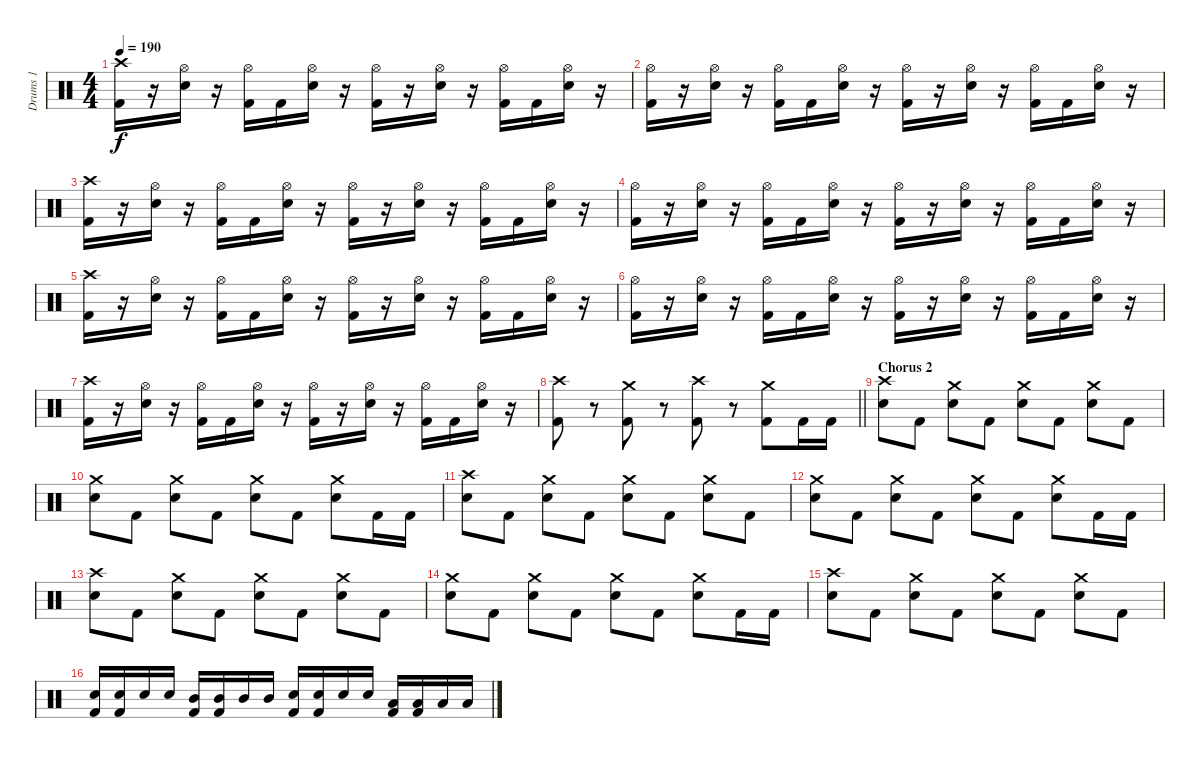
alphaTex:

\track ("Drums 1" "Drums 1") {instrument percussion}
\staff {score}
\articulation defaults
\ts (4 4)
\tempo 190
\clef neutral
\ks c
("Crash high (hit)" "Kick (hit) 2").16{dy f} r.16 ("Hi-Hat (open)" "Snare (hit) 2").16 r.16 ("Hi-Hat (open)" "Kick (hit) 2").16 "Kick (hit) 2".16 ("Hi-Hat (open)" "Snare (hit) 2").16 r.16 ("Hi-Hat (open)" "Kick (hit) 2").16 r.16 ("Hi-Hat (open)" "Snare (hit) 2").16 r.16 ("Hi-Hat (open)" "Kick (hit) 2").16 "Kick (hit) 2".16 ("Hi-Hat (open)" "Snare (hit) 2").16 r.16 |
("Hi-Hat (open)" "Kick (hit) 2").16 r.16 ("Hi-Hat (open)" "Snare (hit) 2").16 r.16 ("Hi-Hat (open)" "Kick (hit) 2").16 "Kick (hit) 2".16 ("Hi-Hat (open)" "Snare (hit) 2").16 r.16 ("Hi-Hat (open)" "Kick (hit) 2").16 r.16 ("Hi-Hat (open)" "Snare (hit) 2").16 r.16 ("Hi-Hat (open)" "Kick (hit) 2").16 "Kick (hit) 2".16 ("Hi-Hat (open)" "Snare (hit) 2").16 r.16 |
("Crash high (hit)" "Kick (hit) 2").16 r.16 ("Hi-Hat (open)" "Snare (hit) 2").16 r.16 ("Hi-Hat (open)" "Kick (hit) 2").16 "Kick (hit) 2".16 ("Hi-Hat (open)" "Snare (hit) 2").16 r.16 ("Hi-Hat (open)" "Kick (hit) 2").16 r.16 ("Hi-Hat (open)" "Snare (hit) 2").16 r.16 ("Hi-Hat (open)" "Kick (hit) 2").16 "Kick (hit) 2".16 ("Hi-Hat (open)" "Snare (hit) 2").16 r.16 |
("Hi-Hat (open)" "Kick (hit) 2").16 r.16 ("Hi-Hat (open)" "Snare (hit) 2").16 r.16 ("Hi-Hat (open)" "Kick (hit) 2").16 "Kick (hit) 2".16 ("Hi-Hat (open)" "Snare (hit) 2").16 r.16 ("Hi-Hat (open)" "Kick (hit) 2").16 r.16 ("Hi-Hat (open)" "Snare (hit) 2").16 r.16 ("Hi-Hat (open)" "Kick (hit) 2").16 "Kick (hit) 2".16 ("Hi-Hat (open)" "Snare (hit) 2").16 r.16 |
("Crash high (hit)" "Kick (hit) 2").16 r.16 ("Hi-Hat (open)" "Snare (hit) 2").16 r.16 ("Hi-Hat (open)" "Kick (hit) 2").16 "Kick (hit) 2".16 ("Hi-Hat (open)" "Snare (hit) 2").16 r.16 ("Hi-Hat (open)" "Kick (hit) 2").16 r.16 ("Hi-Hat (open)" "Snare (hit) 2").16 r.16 ("Hi-Hat (open)" "Kick (hit) 2").16 "Kick (hit) 2".16 ("Hi-Hat (open)" "Snare (hit) 2").16 r.16 |
("Hi-Hat (open)" "Kick (hit) 2").16 r.16 ("Hi-Hat (open)" "Snare (hit) 2").16 r.16 ("Hi-Hat (open)" "Kick (hit) 2").16 "Kick (hit) 2".16 ("Hi-Hat (open)" "Snare (hit) 2").16 r.16 ("Hi-Hat (open)" "Kick (hit) 2").16 r.16 ("Hi-Hat (open)" "Snare (hit) 2").16 r.16 ("Hi-Hat (open)" "Kick (hit) 2").16 "Kick (hit) 2".16 ("Hi-Hat (open)" "Snare (hit) 2").16 r.16 |
("Crash high (hit)" "Kick (hit) 2").16 r.16 ("Hi-Hat (open)" "Snare (hit) 2").16 r.16 ("Hi-Hat (open)" "Kick (hit) 2").16 "Kick (hit) 2".16 ("Hi-Hat (open)" "Snare (hit) 2").16 r.16 ("Hi-Hat (open)" "Kick (hit) 2").16 r.16 ("Hi-Hat (open)" "Snare (hit) 2").16 r.16 ("Hi-Hat (open)" "Kick (hit) 2").16 "Kick (hit) 2".16 ("Hi-Hat (open)" "Snare (hit) 2").16 r.16 |
\barLineRight lightlight
("Crash high (hit)" "Kick (hit) 2").8 r.8 ("Crash medium (hit)" "Kick (hit) 2").8 r.8 ("Crash high (hit)" "Kick (hit) 2").8 r.8 ("Crash medium (hit)" "Kick (hit) 2").8 "Kick (hit) 2".16 "Kick (hit) 2".16 |
\section ("" "Chorus 2")
("Crash high (hit)" "Snare (hit) 2").8 "Kick (hit) 2".8 ("Crash medium (hit)" "Snare (hit) 2").8 "Kick (hit) 2".8 ("Crash medium (hit)" "Snare (hit) 2").8 "Kick (hit) 2".8 ("Crash medium (hit)" "Snare (hit) 2").8 "Kick (hit) 2".8 |
("Crash medium (hit)" "Snare (hit) 2").8 "Kick (hit) 2".8 ("Crash medium (hit)" "Snare (hit) 2").8 "Kick (hit) 2".8 ("Crash medium (hit)" "Snare (hit) 2").8 "Kick (hit) 2".8 ("Crash medium (hit)" "Snare (hit) 2").8 "Kick (hit) 2".16 "Kick (hit) 2".16 |
("Crash high (hit)" "Snare (hit) 2").8 "Kick (hit) 2".8 ("Crash medium (hit)" "Snare (hit) 2").8 "Kick (hit) 2".8 ("Crash medium (hit)" "Snare (hit) 2").8 "Kick (hit) 2".8 ("Crash medium (hit)" "Snare (hit) 2").8 "Kick (hit) 2".8 |
("Crash medium (hit)" "Snare (hit) 2").8 "Kick (hit) 2".8 ("Crash medium (hit)" "Snare (hit) 2").8 "Kick (hit) 2".8 ("Crash medium (hit)" "Snare (hit) 2").8 "Kick (hit) 2".8 ("Crash medium (hit)" "Snare (hit) 2").8 "Kick (hit) 2".16 "Kick (hit) 2".16 |
("Crash high (hit)" "Snare (hit) 2").8 "Kick (hit) 2".8 ("Crash medium (hit)" "Snare (hit) 2").8 "Kick (hit) 2".8 ("Crash medium (hit)" "Snare (hit) 2").8 "Kick (hit) 2".8 ("Crash medium (hit)" "Snare (hit) 2").8 "Kick (hit) 2".8 |
("Crash medium (hit)" "Snare (hit) 2").8 "Kick (hit) 2".8 ("Crash medium (hit)" "Snare (hit) 2").8 "Kick (hit) 2".8 ("Crash medium (hit)" "Snare (hit) 2").8 "Kick (hit) 2".8 ("Crash medium (hit)" "Snare (hit) 2").8 "Kick (hit) 2".16 "Kick (hit) 2".16 |
("Crash high (hit)" "Snare (hit) 2").8 "Kick (hit) 2".8 ("Crash medium (hit)" "Snare (hit) 2").8 "Kick (hit) 2".8 ("Crash medium (hit)" "Snare (hit) 2").8 "Kick (hit) 2".8 ("Crash medium (hit)" "Snare (hit) 2").8 "Kick (hit) 2".8 |
("Snare (hit) 2" "Kick (hit) 2").16 ("Snare (hit) 2" "Kick (hit) 2").16 "Snare (hit) 2".16 "Snare (hit) 2".16 ("Mid Tom (hit)" "Kick (hit) 2").16 ("Mid Tom (hit)" "Kick (hit) 2").16 "Mid Tom (hit)".16 "Mid Tom (hit)".16 ("Snare (hit) 2" "Kick (hit) 2").16 ("Snare (hit) 2" "Kick (hit) 2").16 "Snare (hit) 2".16 "Snare (hit) 2".16 ("Low Tom (hit)" "Kick (hit) 2").16 ("Low Tom (hit)" "Kick (hit) 2").16 "Low Tom (hit)".16 "Low Tom (hit)".16
